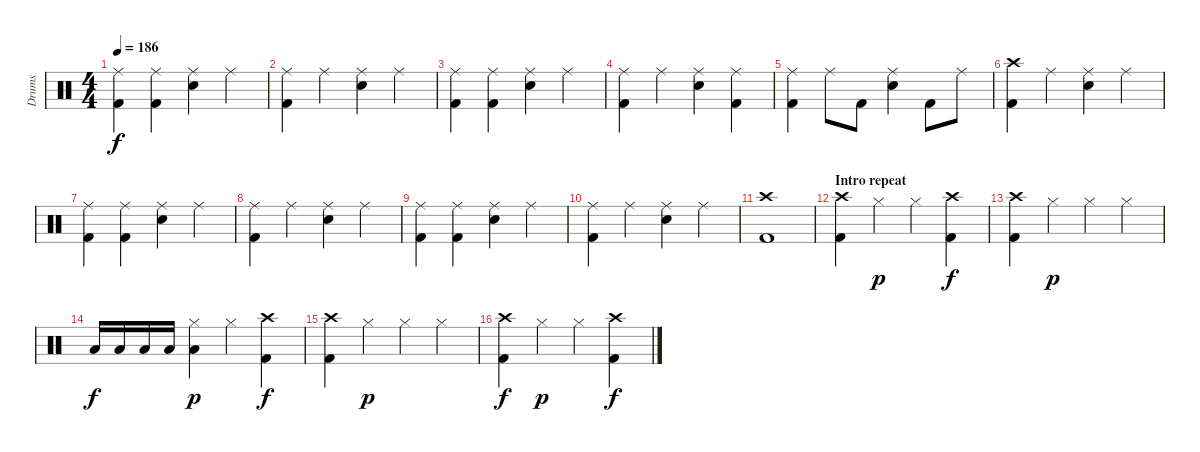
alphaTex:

\track ("Drums" "Drums") {instrument percussion}
\staff {score}
\articulation defaults
\ts (4 4)
\tempo 186
\clef neutral
\ks c
("Ride (middle)" "Kick (hit) 2").4{dy f} ("Ride (middle)" "Kick (hit) 2").4 ("Ride (middle)" "Electric Snare (hit)").4 "Ride (middle)".4 |
("Ride (middle)" "Kick (hit) 2").4 "Ride (middle)".4 ("Ride (middle)" "Electric Snare (hit)").4 "Ride (middle)".4 |
("Ride (middle)" "Kick (hit) 2").4 ("Ride (middle)" "Kick (hit) 2").4 ("Ride (middle)" "Electric Snare (hit)").4 "Ride (middle)".4 |
("Ride (middle)" "Kick (hit) 2").4 "Ride (middle)".4 ("Ride (middle)" "Electric Snare (hit)").4 ("Ride (middle)" "Kick (hit) 2").4 |
("Ride (middle)" "Kick (hit) 2").4 "Ride (middle)".8 "Kick (hit) 2".8 ("Ride (middle)" "Electric Snare (hit)").4 "Kick (hit) 2".8 "Ride (middle)".8 |
("Crash high (hit)" "Kick (hit) 2").4 "Ride (middle)".4 ("Ride (middle)" "Electric Snare (hit)").4 "Ride (middle)".4 |
("Ride (middle)" "Kick (hit) 2").4 ("Ride (middle)" "Kick (hit) 2").4 ("Ride (middle)" "Electric Snare (hit)").4 "Ride (middle)".4 |
("Ride (middle)" "Kick (hit) 2").4 "Ride (middle)".4 ("Ride (middle)" "Electric Snare (hit)").4 "Ride (middle)".4 |
("Ride (middle)" "Kick (hit) 2").4 ("Ride (middle)" "Kick (hit) 2").4 ("Ride (middle)" "Electric Snare (hit)").4 "Ride (middle)".4 |
("Ride (middle)" "Kick (hit) 2").4 "Ride (middle)".4 ("Ride (middle)" "Electric Snare (hit)").4 "Ride (middle)".4 |
("Crash high (hit)" "Kick (hit) 2").1 |
\section ("" "Intro repeat")
("Crash high (hit)" "Kick (hit) 2").4 "Hi-Hat (closed)".4{dy p} "Hi-Hat (closed)".4 ("Crash high (hit)" "Kick (hit) 2").4{dy f} |
("Crash high (hit)" "Kick (hit) 2").4 "Hi-Hat (closed)".4{dy p} "Hi-Hat (closed)".4 "Hi-Hat (closed)".4 |
"Low Tom (hit)".16{dy f} "Low Tom (hit)".16 "Low Tom (hit)".16 "Low Tom (hit)".16 ("Hi-Hat (closed)" "Low Tom (hit)").4{dy p} "Hi-Hat (closed)".4 ("Crash high (hit)" "Kick (hit) 2").4{dy f} |
("Crash high (hit)" "Kick (hit) 2").4 "Hi-Hat (closed)".4{dy p} "Hi-Hat (closed)".4 "Hi-Hat (closed)".4 |
("Crash high (hit)" "Kick (hit) 2").4{dy f} "Hi-Hat (closed)".4{dy p} "Hi-Hat (closed)".4 ("Crash high (hit)" "Kick (hit) 2").4{dy f}
